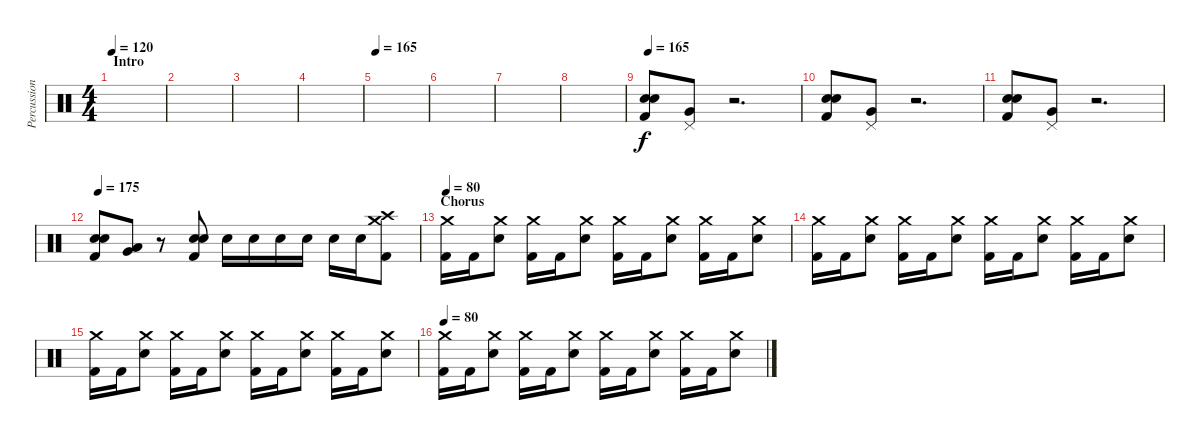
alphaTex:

\track ("Percussion" "Percussion") {instrument percussion}
\staff {score}
\articulation defaults
\ts (4 4)
\section ("" "Intro")
\tempo 120
\tempo 165
\tempo 120
\clef neutral
\ks c
|
|
|
|
\tempo 165
|
|
|
|
\tempo 165
("Kick (hit) 2" "Electric Snare (hit)" "Electric Snare (hit)").8 ("Pedal Hi-Hat (hit)" "Very Low Tom (hit)").8 r.2{d} |
("Kick (hit) 2" "Electric Snare (hit)" "Electric Snare (hit)").8 ("Pedal Hi-Hat (hit)" "Very Low Tom (hit)").8 r.2{d} |
("Kick (hit) 2" "Electric Snare (hit)" "Electric Snare (hit)").8 ("Pedal Hi-Hat (hit)" "Very Low Tom (hit)").8 r.2{d} |
\tempo 175
("Electric Snare (hit)" "Electric Snare (hit)" "Kick (hit) 2").8 ("Very Low Tom (hit)" "Low Floor Tom (hit)").8 r.8 ("Electric Snare (hit)" "Electric Snare (hit)" "Kick (hit) 2").8 "Electric Snare (hit)".16 "Electric Snare (hit)".16 "Electric Snare (hit)".16 "Electric Snare (hit)".16 "Electric Snare (hit)".16 "Electric Snare (hit)".16 ("Crash high (hit)" "Crash medium (hit)" "Kick (hit) 2").8 |
\section ("" "Chorus")
\tempo 80
("Kick (hit) 2" "Crash medium (hit)").16 "Kick (hit) 2".16 ("Electric Snare (hit)" "Crash medium (hit)").8 ("Kick (hit) 2" "Crash medium (hit)").16 "Kick (hit) 2".16 ("Electric Snare (hit)" "Crash medium (hit)").8 ("Kick (hit) 2" "Crash medium (hit)").16 "Kick (hit) 2".16 ("Electric Snare (hit)" "Crash medium (hit)").8 ("Kick (hit) 2" "Crash medium (hit)").16 "Kick (hit) 2".16 ("Electric Snare (hit)" "Crash medium (hit)").8 |
("Kick (hit) 2" "Crash medium (hit)").16 "Kick (hit) 2".16 ("Electric Snare (hit)" "Crash medium (hit)").8 ("Kick (hit) 2" "Crash medium (hit)").16 "Kick (hit) 2".16 ("Electric Snare (hit)" "Crash medium (hit)").8 ("Kick (hit) 2" "Crash medium (hit)").16 "Kick (hit) 2".16 ("Electric Snare (hit)" "Crash medium (hit)").8 ("Kick (hit) 2" "Crash medium (hit)").16 "Kick (hit) 2".16 ("Electric Snare (hit)" "Crash medium (hit)").8 |
("Kick (hit) 2" "Crash medium (hit)").16 "Kick (hit) 2".16 ("Electric Snare (hit)" "Crash medium (hit)").8 ("Kick (hit) 2" "Crash medium (hit)").16 "Kick (hit) 2".16 ("Electric Snare (hit)" "Crash medium (hit)").8 ("Kick (hit) 2" "Crash medium (hit)").16 "Kick (hit) 2".16 ("Electric Snare (hit)" "Crash medium (hit)").8 ("Kick (hit) 2" "Crash medium (hit)").16 "Kick (hit) 2".16 ("Electric Snare (hit)" "Crash medium (hit)").8 |
\tempo 80
("Kick (hit) 2" "Crash medium (hit)").16 "Kick (hit) 2".16 ("Electric Snare (hit)" "Crash medium (hit)").8 ("Kick (hit) 2" "Crash medium (hit)").16 "Kick (hit) 2".16 ("Electric Snare (hit)" "Crash medium (hit)").8 ("Kick (hit) 2" "Crash medium (hit)").16 "Kick (hit) 2".16 ("Electric Snare (hit)" "Crash medium (hit)").8 ("Kick (hit) 2" "Crash medium (hit)").16 "Kick (hit) 2".16 ("Electric Snare (hit)" "Crash medium (hit)").8
